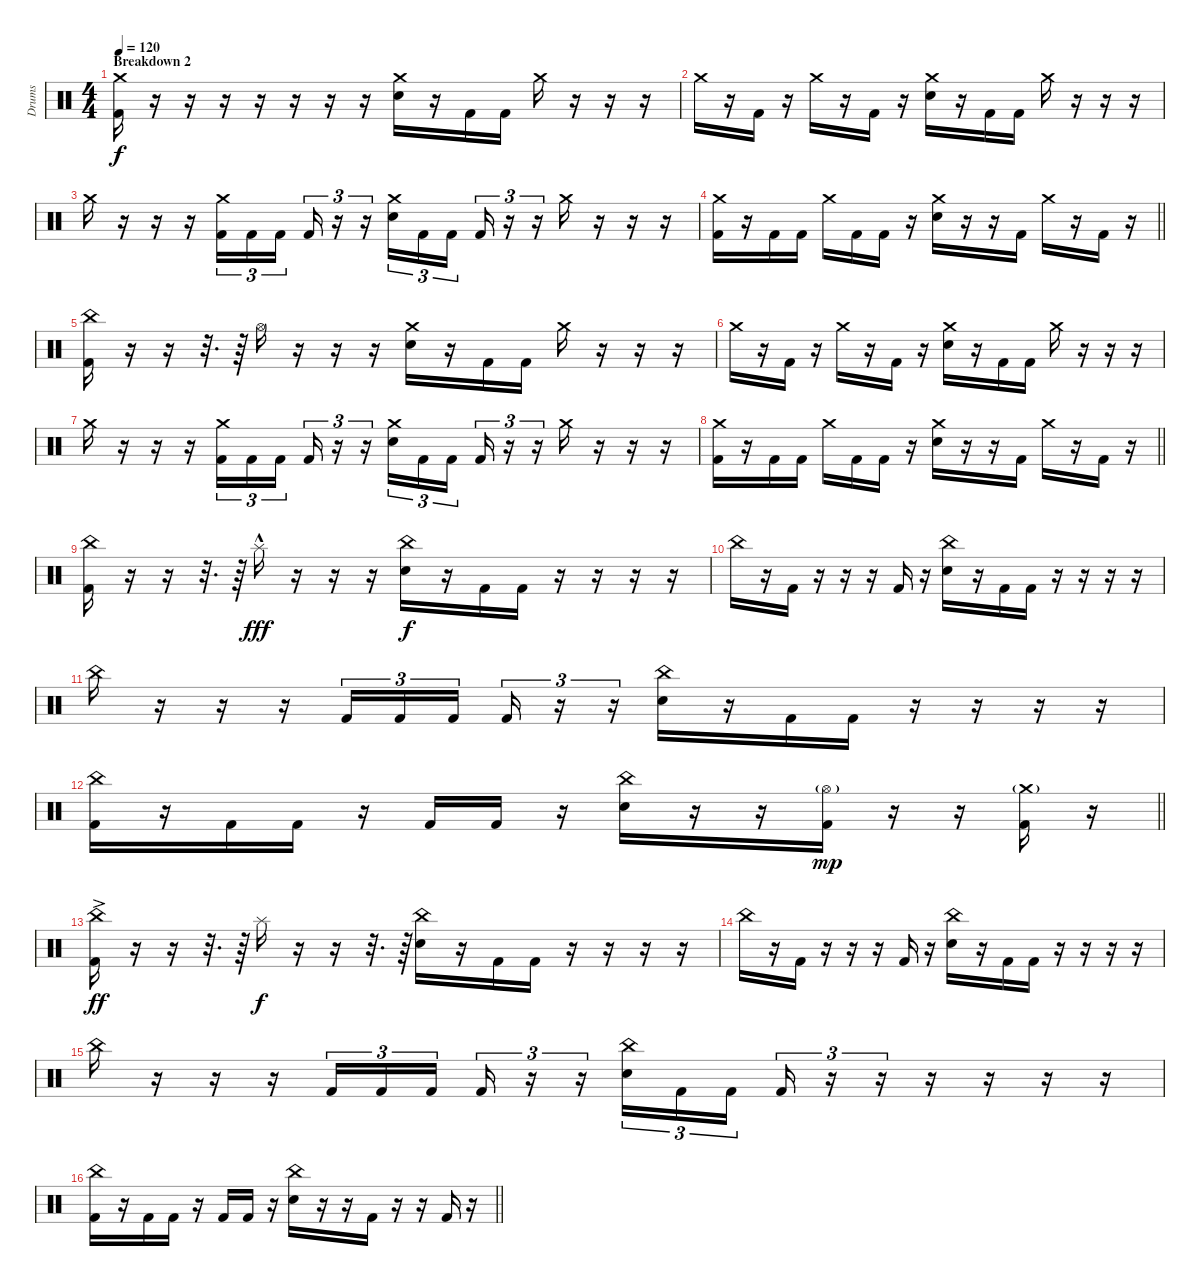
\track ("Drums" "Drums") {instrument percussion}
\staff {score}
\articulation defaults
\ts (4 4)
\section ("" "Breakdown 2")
\tempo 120
\clef neutral
\ks c
("Crash medium (hit)" "Kick (hit) 2").16{dy f} r.16 r.16 r.16 r.16 r.16 r.16 r.16 ("Crash medium (hit)" "Electric Snare (hit)").16 r.16 "Kick (hit) 2".16 "Kick (hit) 2".16 "Crash medium (hit)".16 r.16 r.16 r.16 |
"Crash medium (hit)".16 r.16 "Kick (hit) 2".16 r.16 "Crash medium (hit)".16 r.16 "Kick (hit) 2".16 r.16 ("Crash medium (hit)" "Electric Snare (hit)").16 r.16 "Kick (hit) 2".16 "Kick (hit) 2".16 "Crash medium (hit)".16 r.16 r.16 r.16 |
"Crash medium (hit)".16 r.16 r.16 r.16 ("Crash medium (hit)" "Kick (hit) 2").16{tu (3 2)} "Kick (hit) 2".16{tu (3 2)} "Kick (hit) 2".16{tu (3 2) beam splitsecondary} "Kick (hit) 2".16{tu (3 2)} r.16{tu (3 2)} r.16{tu (3 2)} ("Crash medium (hit)" "Electric Snare (hit)").16{tu (3 2)} "Kick (hit) 2".16{tu (3 2)} "Kick (hit) 2".16{tu (3 2) beam splitsecondary} "Kick (hit) 2".16{tu (3 2)} r.16{tu (3 2)} r.16{tu (3 2)} "Crash medium (hit)".16 r.16 r.16 r.16 |
\barLineRight lightlight
("Crash medium (hit)" "Kick (hit) 2").16 r.16 "Kick (hit) 2".16 "Kick (hit) 2".16 "Crash medium (hit)".16 "Kick (hit) 2".16 "Kick (hit) 2".16 r.16 ("Crash medium (hit)" "Electric Snare (hit)").16 r.16 r.16 "Kick (hit) 2".16 "Crash medium (hit)".16 r.16 "Kick (hit) 2".16 r.16 |
\section ("" "")
("China (hit)" "Kick (hit) 2").16 r.16{volume 0} r.16 r.32{d} r.64{volume 16} "Hi-Hat (open)".16 r.16 r.16 r.16 ("Crash medium (hit)" "Electric Snare (hit)").16 r.16 "Kick (hit) 2".16 "Kick (hit) 2".16 "Crash medium (hit)".16 r.16 r.16 r.16 |
"Crash medium (hit)".16 r.16 "Kick (hit) 2".16 r.16 "Crash medium (hit)".16 r.16 "Kick (hit) 2".16 r.16 ("Crash medium (hit)" "Electric Snare (hit)").16 r.16 "Kick (hit) 2".16 "Kick (hit) 2".16 "Crash medium (hit)".16 r.16 r.16 r.16 |
"Crash medium (hit)".16 r.16 r.16 r.16 ("Crash medium (hit)" "Kick (hit) 2").16{tu (3 2)} "Kick (hit) 2".16{tu (3 2)} "Kick (hit) 2".16{tu (3 2) beam splitsecondary} "Kick (hit) 2".16{tu (3 2)} r.16{tu (3 2)} r.16{tu (3 2)} ("Crash medium (hit)" "Electric Snare (hit)").16{tu (3 2)} "Kick (hit) 2".16{tu (3 2)} "Kick (hit) 2".16{tu (3 2) beam splitsecondary} "Kick (hit) 2".16{tu (3 2)} r.16{tu (3 2)} r.16{tu (3 2)} "Crash medium (hit)".16 r.16 r.16 r.16 |
\barLineRight lightlight
("Crash medium (hit)" "Kick (hit) 2").16 r.16 "Kick (hit) 2".16 "Kick (hit) 2".16 "Crash medium (hit)".16 "Kick (hit) 2".16 "Kick (hit) 2".16 r.16 ("Crash medium (hit)" "Electric Snare (hit)").16 r.16 r.16 "Kick (hit) 2".16 "Crash medium (hit)".16 r.16 "Kick (hit) 2".16 r.16 |
\section ("" "")
("China (hit)" "Kick (hit) 2").16 r.16{volume 0} r.16 r.32{d} r.64{volume 13} "Splash (hit)"{hac}.16{dy fff} r.16 r.16 r.16 ("China (hit)" "Electric Snare (hit)").16{dy f} r.16 "Kick (hit) 2".16 "Kick (hit) 2".16 r.16 r.16 r.16 r.16 |
"China (hit)".16 r.16 "Kick (hit) 2".16 r.16 r.16 r.16 "Kick (hit) 2".16 r.16 ("China (hit)" "Electric Snare (hit)").16 r.16 "Kick (hit) 2".16 "Kick (hit) 2".16 r.16 r.16 r.16 r.16 |
"China (hit)".16 r.16 r.16 r.16 "Kick (hit) 2".16{tu (3 2)} "Kick (hit) 2".16{tu (3 2)} "Kick (hit) 2".16{tu (3 2) beam splitsecondary} "Kick (hit) 2".16{tu (3 2)} r.16{tu (3 2)} r.16{tu (3 2)} ("China (hit)" "Electric Snare (hit)").16 r.16 "Kick (hit) 2".16 "Kick (hit) 2".16 r.16 r.16 r.16 r.16 |
\barLineRight lightlight
("China (hit)" "Kick (hit) 2").16 r.16 "Kick (hit) 2".16 "Kick (hit) 2".16 r.16 "Kick (hit) 2".16 "Kick (hit) 2".16 r.16 ("China (hit)" "Electric Snare (hit)").16 r.16 r.16 ("Hi-Hat (open)"{g} "Kick (hit) 2").16{dy mp} r.16 r.16 ("Crash medium (hit)"{g} "Kick (hit) 2").16 r.16 |
\section ("" "")
("China (hit)"{ac} "Kick (hit) 2").16{dy ff} r.16{volume 0} r.16 r.32{d} r.64{volume 13} "Splash (hit)".16{dy f} r.16 r.16 r.32{d} r.64 ("China (hit)" "Electric Snare (hit)").16 r.16 "Kick (hit) 2".16 "Kick (hit) 2".16 r.16 r.16 r.16 r.16 |
"China (hit)".16 r.16 "Kick (hit) 2".16 r.16 r.16 r.16 "Kick (hit) 2".16 r.16 ("China (hit)" "Electric Snare (hit)").16 r.16 "Kick (hit) 2".16 "Kick (hit) 2".16 r.16 r.16 r.16 r.16 |
"China (hit)".16 r.16 r.16 r.16 "Kick (hit) 2".16{tu (3 2)} "Kick (hit) 2".16{tu (3 2)} "Kick (hit) 2".16{tu (3 2) beam splitsecondary} "Kick (hit) 2".16{tu (3 2)} r.16{tu (3 2)} r.16{tu (3 2)} ("China (hit)" "Electric Snare (hit)").16{tu (3 2)} "Kick (hit) 2".16{tu (3 2)} "Kick (hit) 2".16{tu (3 2) beam splitsecondary} "Kick (hit) 2".16{tu (3 2)} r.16{tu (3 2)} r.16{tu (3 2)} r.16 r.16 r.16 r.16 |
\barLineRight lightlight
("China (hit)" "Kick (hit) 2").16 r.16 "Kick (hit) 2".16 "Kick (hit) 2".16 r.16 "Kick (hit) 2".16 "Kick (hit) 2".16 r.16 ("China (hit)" "Electric Snare (hit)").16 r.16 r.16 "Kick (hit) 2".16 r.16 r.16 "Kick (hit) 2".16 r.16
